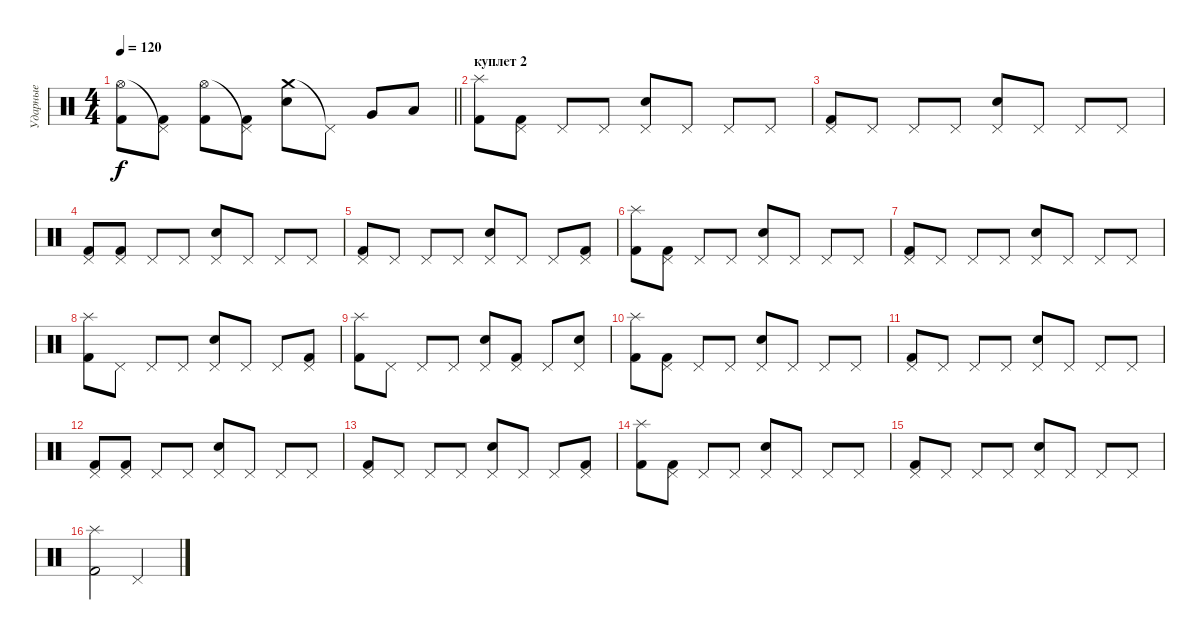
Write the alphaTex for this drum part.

\track ("Ударные" "Ударные") {instrument percussion}
\staff {score}
\articulation defaults
\ts (4 4)
\tempo 120
\clef neutral
\barLineRight lightlight
\ks c
("Hi-Hat (open)" "Kick (hit) 2").8{dy f} ("Pedal Hi-Hat (hit)"{t} "Kick (hit) 2").8 ("Hi-Hat (open)" "Kick (hit) 2").8 ("Pedal Hi-Hat (hit)"{t} "Kick (hit) 2").8 ("Crash medium (hit)" "Snare (hit) 2").8 "Pedal Hi-Hat (hit)"{t}.8 "Very Low Tom (hit)".8 "Low Tom (hit)".8 |
\section ("" "куплет 2")
("Splash (hit)" "Kick (hit) 2").8 ("Pedal Hi-Hat (hit)" "Kick (hit) 2").8 "Pedal Hi-Hat (hit)".8 "Pedal Hi-Hat (hit)".8 ("Pedal Hi-Hat (hit)" "Snare (hit) 2").8 "Pedal Hi-Hat (hit)".8 "Pedal Hi-Hat (hit)".8 "Pedal Hi-Hat (hit)".8 |
("Pedal Hi-Hat (hit)" "Kick (hit) 2").8 "Pedal Hi-Hat (hit)".8 "Pedal Hi-Hat (hit)".8 "Pedal Hi-Hat (hit)".8 ("Pedal Hi-Hat (hit)" "Snare (hit) 2").8 "Pedal Hi-Hat (hit)".8 "Pedal Hi-Hat (hit)".8 "Pedal Hi-Hat (hit)".8 |
("Pedal Hi-Hat (hit)" "Kick (hit) 2").8 ("Pedal Hi-Hat (hit)" "Kick (hit) 2").8 "Pedal Hi-Hat (hit)".8 "Pedal Hi-Hat (hit)".8 ("Pedal Hi-Hat (hit)" "Snare (hit) 2").8 "Pedal Hi-Hat (hit)".8 "Pedal Hi-Hat (hit)".8 "Pedal Hi-Hat (hit)".8 |
("Pedal Hi-Hat (hit)" "Kick (hit) 2").8 "Pedal Hi-Hat (hit)".8 "Pedal Hi-Hat (hit)".8 "Pedal Hi-Hat (hit)".8 ("Pedal Hi-Hat (hit)" "Snare (hit) 2").8 "Pedal Hi-Hat (hit)".8 "Pedal Hi-Hat (hit)".8 ("Pedal Hi-Hat (hit)" "Kick (hit) 2").8 |
("Splash (hit)" "Kick (hit) 2").8 ("Pedal Hi-Hat (hit)" "Kick (hit) 2").8 "Pedal Hi-Hat (hit)".8 "Pedal Hi-Hat (hit)".8 ("Pedal Hi-Hat (hit)" "Snare (hit) 2").8 "Pedal Hi-Hat (hit)".8 "Pedal Hi-Hat (hit)".8 "Pedal Hi-Hat (hit)".8 |
("Pedal Hi-Hat (hit)" "Kick (hit) 2").8 "Pedal Hi-Hat (hit)".8 "Pedal Hi-Hat (hit)".8 "Pedal Hi-Hat (hit)".8 ("Pedal Hi-Hat (hit)" "Snare (hit) 2").8 "Pedal Hi-Hat (hit)".8 "Pedal Hi-Hat (hit)".8 "Pedal Hi-Hat (hit)".8 |
("Splash (hit)" "Kick (hit) 2").8 "Pedal Hi-Hat (hit)".8 "Pedal Hi-Hat (hit)".8 "Pedal Hi-Hat (hit)".8 ("Pedal Hi-Hat (hit)" "Snare (hit) 2").8 "Pedal Hi-Hat (hit)".8 "Pedal Hi-Hat (hit)".8 ("Pedal Hi-Hat (hit)" "Kick (hit) 2").8 |
("Splash (hit)" "Kick (hit) 2").8 "Pedal Hi-Hat (hit)".8 "Pedal Hi-Hat (hit)".8 "Pedal Hi-Hat (hit)".8 ("Pedal Hi-Hat (hit)" "Snare (hit) 2").8 ("Pedal Hi-Hat (hit)" "Kick (hit) 2").8 "Pedal Hi-Hat (hit)".8 ("Pedal Hi-Hat (hit)" "Snare (hit) 2").8 |
("Splash (hit)" "Kick (hit) 2").8 ("Pedal Hi-Hat (hit)" "Kick (hit) 2").8 "Pedal Hi-Hat (hit)".8 "Pedal Hi-Hat (hit)".8 ("Pedal Hi-Hat (hit)" "Snare (hit) 2").8 "Pedal Hi-Hat (hit)".8 "Pedal Hi-Hat (hit)".8 "Pedal Hi-Hat (hit)".8 |
("Pedal Hi-Hat (hit)" "Kick (hit) 2").8 "Pedal Hi-Hat (hit)".8 "Pedal Hi-Hat (hit)".8 "Pedal Hi-Hat (hit)".8 ("Pedal Hi-Hat (hit)" "Snare (hit) 2").8 "Pedal Hi-Hat (hit)".8 "Pedal Hi-Hat (hit)".8 "Pedal Hi-Hat (hit)".8 |
("Pedal Hi-Hat (hit)" "Kick (hit) 2").8 ("Pedal Hi-Hat (hit)" "Kick (hit) 2").8 "Pedal Hi-Hat (hit)".8 "Pedal Hi-Hat (hit)".8 ("Pedal Hi-Hat (hit)" "Snare (hit) 2").8 "Pedal Hi-Hat (hit)".8 "Pedal Hi-Hat (hit)".8 "Pedal Hi-Hat (hit)".8 |
("Pedal Hi-Hat (hit)" "Kick (hit) 2").8 "Pedal Hi-Hat (hit)".8 "Pedal Hi-Hat (hit)".8 "Pedal Hi-Hat (hit)".8 ("Pedal Hi-Hat (hit)" "Snare (hit) 2").8 "Pedal Hi-Hat (hit)".8 "Pedal Hi-Hat (hit)".8 ("Pedal Hi-Hat (hit)" "Kick (hit) 2").8 |
("Splash (hit)" "Kick (hit) 2").8 ("Pedal Hi-Hat (hit)" "Kick (hit) 2").8 "Pedal Hi-Hat (hit)".8 "Pedal Hi-Hat (hit)".8 ("Pedal Hi-Hat (hit)" "Snare (hit) 2").8 "Pedal Hi-Hat (hit)".8 "Pedal Hi-Hat (hit)".8 "Pedal Hi-Hat (hit)".8 |
("Pedal Hi-Hat (hit)" "Kick (hit) 2").8 "Pedal Hi-Hat (hit)".8 "Pedal Hi-Hat (hit)".8 "Pedal Hi-Hat (hit)".8 ("Pedal Hi-Hat (hit)" "Snare (hit) 2").8 "Pedal Hi-Hat (hit)".8 "Pedal Hi-Hat (hit)".8 "Pedal Hi-Hat (hit)".8 |
("Splash (hit)" "Kick (hit) 2").2 "Pedal Hi-Hat (hit)".2
